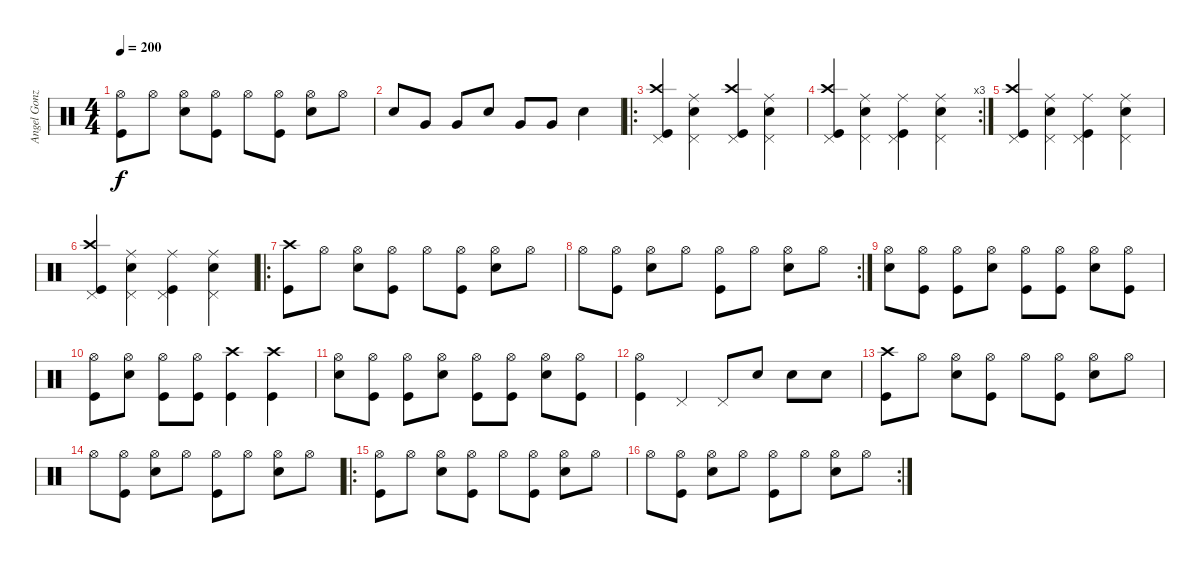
\track ("Angel Gonzalez - Batería" "Angel Gonz") {instrument percussion}
\staff {score}
\articulation defaults
\ts (4 4)
\tempo 200
\clef neutral
\ks c
("Hi-Hat (open)" "Kick (hit)").8{dy f} "Hi-Hat (open)".8 ("Snare (hit) 2" "Hi-Hat (open)").8 ("Hi-Hat (open)" "Kick (hit)").8 "Hi-Hat (open)".8 ("Hi-Hat (open)" "Kick (hit)").8 ("Snare (hit) 2" "Hi-Hat (open)").8 "Hi-Hat (open)".8 |
"Snare (hit) 2".8 "Very Low Tom (hit)".8 "Very Low Tom (hit)".8 "Snare (hit) 2".8 "Very Low Tom (hit)".8 "Very Low Tom (hit)".8 "Snare (hit) 2".4 |
\ro
("Crash high (hit)" "Pedal Hi-Hat (hit)" "Kick (hit)").4 ("Ride (middle)" "Snare (hit) 2" "Pedal Hi-Hat (hit)").4 ("Crash high (hit)" "Pedal Hi-Hat (hit)" "Kick (hit)").4 ("Ride (middle)" "Snare (hit) 2" "Pedal Hi-Hat (hit)").4 |
\rc 3
("Crash high (hit)" "Pedal Hi-Hat (hit)" "Kick (hit)").4 ("Ride (middle)" "Snare (hit) 2" "Pedal Hi-Hat (hit)").4 ("Ride (middle)" "Pedal Hi-Hat (hit)" "Kick (hit)").4 ("Ride (middle)" "Snare (hit) 2" "Pedal Hi-Hat (hit)").4 |
("Crash high (hit)" "Pedal Hi-Hat (hit)" "Kick (hit)").4 ("Ride (middle)" "Snare (hit) 2" "Pedal Hi-Hat (hit)").4 ("Ride (middle)" "Pedal Hi-Hat (hit)" "Kick (hit)").4 ("Ride (middle)" "Snare (hit) 2" "Pedal Hi-Hat (hit)").4 |
("Crash high (hit)" "Pedal Hi-Hat (hit)" "Kick (hit)").4 ("Ride (middle)" "Snare (hit) 2" "Pedal Hi-Hat (hit)").4 ("Ride (middle)" "Pedal Hi-Hat (hit)" "Kick (hit)").4 ("Ride (middle)" "Snare (hit) 2" "Pedal Hi-Hat (hit)").4 |
\ro
("Crash high (hit)" "Kick (hit)").8 "Hi-Hat (open)".8 ("Snare (hit) 2" "Hi-Hat (open)").8 ("Hi-Hat (open)" "Kick (hit)").8 "Hi-Hat (open)".8 ("Hi-Hat (open)" "Kick (hit)").8 ("Snare (hit) 2" "Hi-Hat (open)").8 "Hi-Hat (open)".8 |
\rc 2 "Hi-Hat (open)".8
("Hi-Hat (open)" "Kick (hit)").8 ("Snare (hit) 2" "Hi-Hat (open)").8 "Hi-Hat (open)".8 ("Hi-Hat (open)" "Kick (hit)").8 "Hi-Hat (open)".8 ("Snare (hit) 2" "Hi-Hat (open)").8 "Hi-Hat (open)".8 |
("Snare (hit) 2" "Hi-Hat (open)").8 ("Hi-Hat (open)" "Kick (hit)").8 ("Hi-Hat (open)" "Kick (hit)").8 ("Snare (hit) 2" "Hi-Hat (open)").8 ("Hi-Hat (open)" "Kick (hit)").8 ("Hi-Hat (open)" "Kick (hit)").8 ("Snare (hit) 2" "Hi-Hat (open)").8 ("Hi-Hat (open)" "Kick (hit)").8 |
("Hi-Hat (open)" "Kick (hit)").8 ("Snare (hit) 2" "Hi-Hat (open)").8 ("Hi-Hat (open)" "Kick (hit)").8 ("Hi-Hat (open)" "Kick (hit)").8 ("Crash high (hit)" "Kick (hit)").4 ("Crash high (hit)" "Kick (hit)").4 |
("Snare (hit) 2" "Hi-Hat (open)").8 ("Hi-Hat (open)" "Kick (hit)").8 ("Hi-Hat (open)" "Kick (hit)").8 ("Snare (hit) 2" "Hi-Hat (open)").8 ("Hi-Hat (open)" "Kick (hit)").8 ("Hi-Hat (open)" "Kick (hit)").8 ("Snare (hit) 2" "Hi-Hat (open)").8 ("Hi-Hat (open)" "Kick (hit)").8 |
("Hi-Hat (open)" "Kick (hit)").4 "Pedal Hi-Hat (hit)".4 "Pedal Hi-Hat (hit)".8 "Snare (hit) 2".8 "Snare (hit) 2".8 "Snare (hit) 2".8 |
("Crash high (hit)" "Kick (hit)").8 "Hi-Hat (open)".8 ("Snare (hit) 2" "Hi-Hat (open)").8 ("Hi-Hat (open)" "Kick (hit)").8 "Hi-Hat (open)".8 ("Hi-Hat (open)" "Kick (hit)").8 ("Snare (hit) 2" "Hi-Hat (open)").8 "Hi-Hat (open)".8 |
"Hi-Hat (open)".8 ("Hi-Hat (open)" "Kick (hit)").8 ("Snare (hit) 2" "Hi-Hat (open)").8 "Hi-Hat (open)".8 ("Hi-Hat (open)" "Kick (hit)").8 "Hi-Hat (open)".8 ("Snare (hit) 2" "Hi-Hat (open)").8 "Hi-Hat (open)".8 |
\ro
("Hi-Hat (open)" "Kick (hit)").8 "Hi-Hat (open)".8 ("Snare (hit) 2" "Hi-Hat (open)").8 ("Hi-Hat (open)" "Kick (hit)").8 "Hi-Hat (open)".8 ("Hi-Hat (open)" "Kick (hit)").8 ("Snare (hit) 2" "Hi-Hat (open)").8 "Hi-Hat (open)".8 |
\rc 2 "Hi-Hat (open)".8
("Hi-Hat (open)" "Kick (hit)").8 ("Snare (hit) 2" "Hi-Hat (open)").8 "Hi-Hat (open)".8 ("Hi-Hat (open)" "Kick (hit)").8 "Hi-Hat (open)".8 ("Snare (hit) 2" "Hi-Hat (open)").8 "Hi-Hat (open)".8
